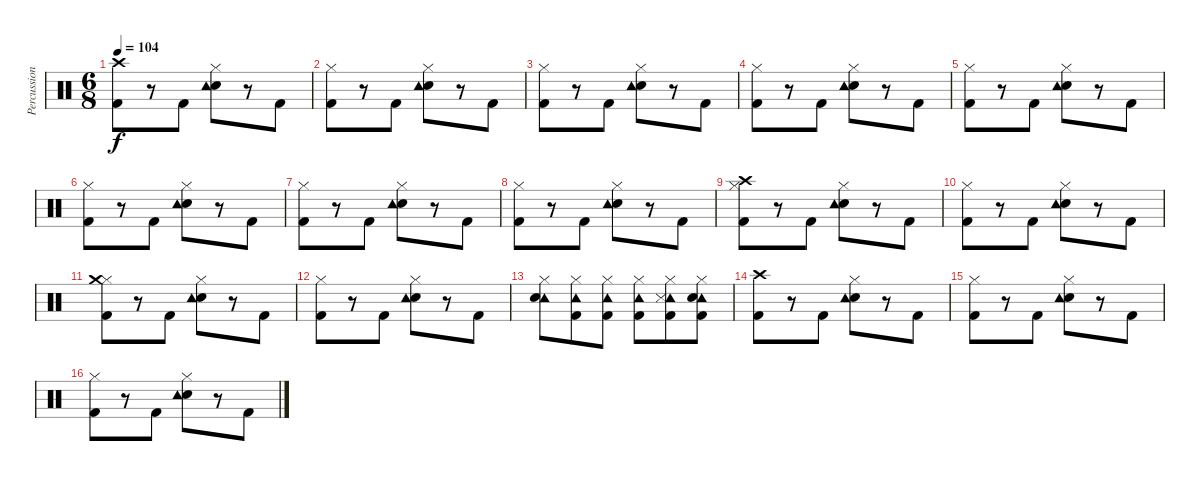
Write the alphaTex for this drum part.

\track ("Percussion" "Percussion") {instrument percussion}
\staff {score}
\articulation defaults
\ts (6 8)
\tempo 104
\clef neutral
\ks c
("Crash high (hit)" "Kick (hit) 2").8{dy f} r.8 "Kick (hit) 2".8 ("Snare (hit) 2" "Tambourine (hit)" "Hi-Hat (closed)").8 r.8 "Kick (hit) 2".8 |
("Hi-Hat (closed)" "Kick (hit) 2").8 r.8 "Kick (hit) 2".8 ("Snare (hit) 2" "Tambourine (hit)" "Hi-Hat (closed)").8 r.8 "Kick (hit) 2".8 |
("Hi-Hat (closed)" "Kick (hit) 2").8 r.8 "Kick (hit) 2".8 ("Snare (hit) 2" "Tambourine (hit)" "Hi-Hat (closed)").8 r.8 "Kick (hit) 2".8 |
("Hi-Hat (closed)" "Kick (hit) 2").8 r.8 "Kick (hit) 2".8 ("Snare (hit) 2" "Tambourine (hit)" "Hi-Hat (closed)").8 r.8 "Kick (hit) 2".8 |
("Hi-Hat (closed)" "Kick (hit) 2").8 r.8 "Kick (hit) 2".8 ("Snare (hit) 2" "Tambourine (hit)" "Hi-Hat (closed)").8 r.8 "Kick (hit) 2".8 |
("Hi-Hat (closed)" "Kick (hit) 2").8 r.8 "Kick (hit) 2".8 ("Snare (hit) 2" "Tambourine (hit)" "Hi-Hat (closed)").8 r.8 "Kick (hit) 2".8 |
("Kick (hit) 2" "Hi-Hat (closed)").8 r.8 "Kick (hit) 2".8 ("Snare (hit) 2" "Tambourine (hit)" "Hi-Hat (closed)").8 r.8 "Kick (hit) 2".8 |
("Hi-Hat (closed)" "Kick (hit) 2").8 r.8 "Kick (hit) 2".8 ("Snare (hit) 2" "Tambourine (hit)" "Hi-Hat (closed)").8 r.8 "Kick (hit) 2".8 |
("Hi-Hat (closed)" "Kick (hit) 2" "Crash high (hit)").8 r.8 "Kick (hit) 2".8 ("Snare (hit) 2" "Tambourine (hit)" "Hi-Hat (closed)").8 r.8 "Kick (hit) 2".8 |
("Hi-Hat (closed)" "Kick (hit) 2").8 r.8 "Kick (hit) 2".8 ("Snare (hit) 2" "Tambourine (hit)" "Hi-Hat (closed)").8 r.8 "Kick (hit) 2".8 |
("Hi-Hat (closed)" "Kick (hit) 2" "Crash medium (hit)").8 r.8 "Kick (hit) 2".8 ("Snare (hit) 2" "Tambourine (hit)" "Hi-Hat (closed)").8 r.8 "Kick (hit) 2".8 |
("Hi-Hat (closed)" "Kick (hit) 2").8 r.8 "Kick (hit) 2".8 ("Snare (hit) 2" "Tambourine (hit)" "Hi-Hat (closed)").8 r.8 "Kick (hit) 2".8 |
("Hi-Hat (closed)" "Tambourine (hit)" "Snare (hit) 2").8 ("Hi-Hat (closed)" "Tambourine (hit)" "Kick (hit) 2").8 ("Hi-Hat (closed)" "Tambourine (hit)" "Kick (hit) 2").8 ("Hi-Hat (closed)" "Tambourine (hit)" "Kick (hit) 2").8 ("Hi-Hat (closed)" "Tambourine (hit)" "Kick (hit) 2" "Snare (side stick) 3").8 ("Hi-Hat (closed)" "Tambourine (hit)" "Kick (hit) 2" "Snare (hit) 2").8 |
("Crash high (hit)" "Kick (hit) 2").8 r.8 "Kick (hit) 2".8 ("Snare (hit) 2" "Tambourine (hit)" "Hi-Hat (closed)").8 r.8 "Kick (hit) 2".8 |
("Hi-Hat (closed)" "Kick (hit) 2").8 r.8 "Kick (hit) 2".8 ("Snare (hit) 2" "Tambourine (hit)" "Hi-Hat (closed)").8 r.8 "Kick (hit) 2".8 |
("Hi-Hat (closed)" "Kick (hit) 2").8 r.8 "Kick (hit) 2".8 ("Snare (hit) 2" "Tambourine (hit)" "Hi-Hat (closed)").8 r.8 "Kick (hit) 2".8
